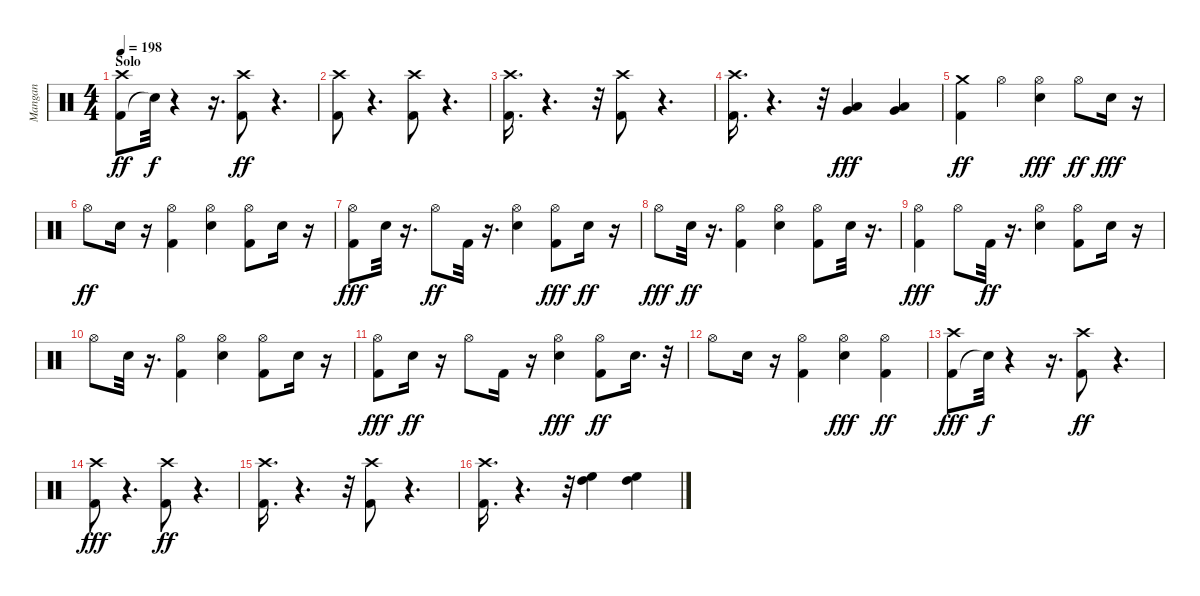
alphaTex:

\track ("Mangan" "Mangan") {instrument percussion}
\staff {score}
\articulation defaults
\ts (4 4)
\section ("" "Solo")
\tempo 198
\clef neutral
\ks c
("Kick (hit) 2" "Crash high (hit)").8{dy ff} "Snare (hit)"{t}.32{dy f} r.4 r.16{d} ("Kick (hit) 2" "Crash high (hit)").8{dy ff} r.4{d} |
("Kick (hit) 2" "Crash high (hit)").8 r.4{d} ("Kick (hit) 2" "Crash high (hit)").8 r.4{d} |
("Kick (hit) 2" "Crash high (hit)").16{d} r.4{d} r.32 ("Kick (hit) 2" "Crash high (hit)").8 r.4{d} |
("Kick (hit) 2" "Crash high (hit)").16{d} r.4{d} r.32 ("Low Floor Tom (hit)" "Very Low Tom (hit)").4{dy fff} ("Low Floor Tom (hit)" "Very Low Tom (hit)").4 |
("Kick (hit) 2" "Crash medium (hit)").4{dy ff} "Hi-Hat (open)".4 ("Snare (hit) 2" "Hi-Hat (open)").4{dy fff} "Hi-Hat (open)".8{dy ff} "Snare (hit) 2".16{dy fff} r.16 |
"Hi-Hat (open)".8{dy ff} "Snare (hit) 2".16 r.16 ("Kick (hit) 2" "Hi-Hat (open)").4 ("Snare (hit) 2" "Hi-Hat (open)").4 ("Kick (hit) 2" "Hi-Hat (open)").8 "Snare (hit) 2".16 r.16 |
("Kick (hit) 2" "Hi-Hat (open)").8{dy fff} "Snare (hit) 2".32 r.16{d} "Hi-Hat (open)".8{dy ff} "Kick (hit) 2".32 r.16{d} ("Snare (hit) 2" "Hi-Hat (open)").4 ("Kick (hit) 2" "Hi-Hat (open)").8{dy fff} "Snare (hit) 2".16{dy ff} r.16 |
"Hi-Hat (open)".8{dy fff} "Snare (hit) 2".32{dy ff} r.16{d} ("Kick (hit) 2" "Hi-Hat (open)").4 ("Snare (hit) 2" "Hi-Hat (open)").4 ("Kick (hit) 2" "Hi-Hat (open)").8 "Snare (hit) 2".32 r.16{d} |
("Kick (hit) 2" "Hi-Hat (open)").4{dy fff} "Hi-Hat (open)".8 "Kick (hit) 2".32{dy ff} r.16{d} ("Snare (hit) 2" "Hi-Hat (open)").4 ("Kick (hit) 2" "Hi-Hat (open)").8 "Snare (hit) 2".16 r.16 |
"Hi-Hat (open)".8 "Snare (hit) 2".32 r.16{d} ("Kick (hit) 2" "Hi-Hat (open)").4 ("Snare (hit) 2" "Hi-Hat (open)").4 ("Kick (hit) 2" "Hi-Hat (open)").8 "Snare (hit) 2".16 r.16 |
("Kick (hit) 2" "Hi-Hat (open)").8{dy fff} "Snare (hit) 2".16{dy ff} r.16 "Hi-Hat (open)".8 "Kick (hit) 2".16 r.16 ("Snare (hit) 2" "Hi-Hat (open)").4{dy fff} ("Kick (hit) 2" "Hi-Hat (open)").8{dy ff} "Snare (hit) 2".16{d} r.32 |
"Hi-Hat (open)".8 "Snare (hit) 2".16 r.16 ("Kick (hit) 2" "Hi-Hat (open)").4 ("Snare (hit) 2" "Hi-Hat (open)").4{dy fff} ("Kick (hit) 2" "Hi-Hat (open)").4{dy ff} |
("Kick (hit) 2" "Crash high (hit)").8{dy fff} "Snare (hit)"{t}.32{dy f} r.4 r.16{d} ("Kick (hit) 2" "Crash high (hit)").8{dy ff} r.4{d} |
("Kick (hit) 2" "Crash high (hit)").8{dy fff} r.4{d} ("Kick (hit) 2" "Crash high (hit)").8{dy ff} r.4{d} |
("Kick (hit) 2" "Crash high (hit)").16{d} r.4{d} r.32 ("Kick (hit) 2" "Crash high (hit)").8 r.4{d} |
("Kick (hit) 2" "Crash high (hit)").16{d} r.4{d} r.32 ("High Tom (hit)" "High Floor Tom (hit)").4 ("High Tom (hit)" "High Floor Tom (hit)").4
